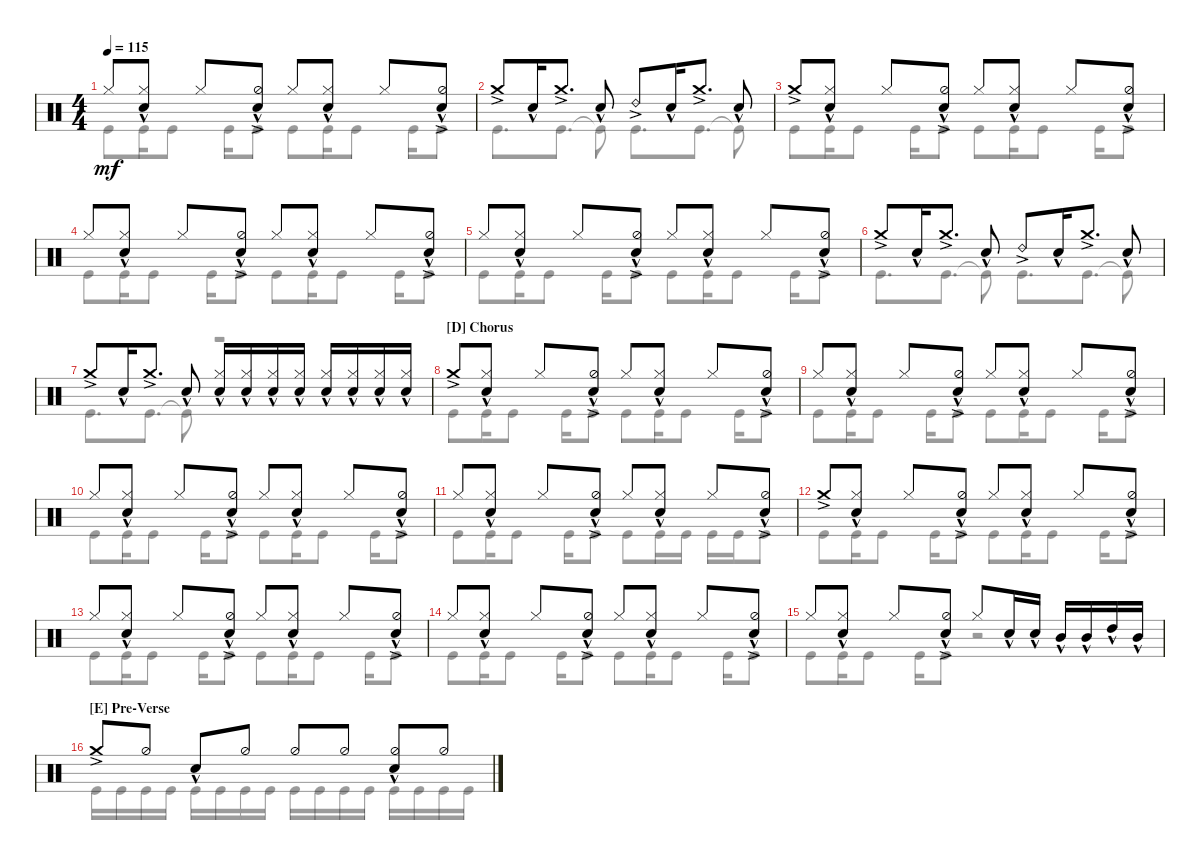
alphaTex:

\defaultSystemsLayout 4
\bracketExtendMode groupsimilarinstruments
\singleTrackTrackNamePolicy hidden
\multiTrackTrackNamePolicy hidden
\firstSystemTrackNameOrientation horizontal
\otherSystemsTrackNameOrientation horizontal
\track ("Maksim Udalov" "Drums") {instrument percussion}
\staff {score}
\articulation defaults
\voice
\ts (4 4)
\tempo 115
\clef neutral
\scale
1.02648
\ks c "Hi-Hat (closed)".8{dy mf}
("Hi-Hat (closed)" "Snare (hit) 2"{hac}).8 "Hi-Hat (closed)".8 ("Snare (hit) 2"{hac} "Hi-Hat (half)"{ac}).8 "Hi-Hat (closed)".8 ("Hi-Hat (closed)" "Snare (hit) 2"{hac}).8 "Hi-Hat (closed)".8 ("Snare (hit) 2"{hac} "Hi-Hat (half)"{ac}).8 |
\scale
0.973518 "Crash medium (hit)"{ac}.8 "Snare (hit) 2"{hac}.16 "Crash medium (hit)"{ac}.8{d} "Snare (hit) 2"{hac}.8 "Ride (bell) 2"{ac}.8 "Snare (hit) 2"{hac}.16 "Crash medium (hit)"{ac}.8{d} "Snare (hit) 2"{hac}.8 |
\scale
1.02648 "Crash medium (hit)"{ac}.8 ("Hi-Hat (closed)" "Snare (hit) 2"{hac}).8 "Hi-Hat (closed)".8 ("Snare (hit) 2"{hac} "Hi-Hat (half)"{ac}).8 "Hi-Hat (closed)".8 ("Hi-Hat (closed)" "Snare (hit) 2"{hac}).8 "Hi-Hat (closed)".8 ("Snare (hit) 2"{hac} "Hi-Hat (half)"{ac}).8 |
\scale
0.973518 "Hi-Hat (closed)".8 ("Hi-Hat (closed)" "Snare (hit) 2"{hac}).8 "Hi-Hat (closed)".8 ("Snare (hit) 2"{hac} "Hi-Hat (half)"{ac}).8 "Hi-Hat (closed)".8 ("Hi-Hat (closed)" "Snare (hit) 2"{hac}).8 "Hi-Hat (closed)".8 ("Snare (hit) 2"{hac} "Hi-Hat (half)"{ac}).8 |
\scale
1.02648 "Hi-Hat (closed)".8 ("Hi-Hat (closed)" "Snare (hit) 2"{hac}).8 "Hi-Hat (closed)".8 ("Snare (hit) 2"{hac} "Hi-Hat (half)"{ac}).8 "Hi-Hat (closed)".8 ("Hi-Hat (closed)" "Snare (hit) 2"{hac}).8 "Hi-Hat (closed)".8 ("Snare (hit) 2"{hac} "Hi-Hat (half)"{ac}).8 |
\scale
0.973518 "Crash medium (hit)"{ac}.8 "Snare (hit) 2"{hac}.16 "Crash medium (hit)"{ac}.8{d} "Snare (hit) 2"{hac}.8 "Ride (bell) 2"{ac}.8 "Snare (hit) 2"{hac}.16 "Crash medium (hit)"{ac}.8{d} "Snare (hit) 2"{hac}.8 |
\scale
1.02648 "Crash medium (hit)"{ac}.8 "Snare (hit) 2"{hac}.16 "Crash medium (hit)"{ac}.8{d} "Snare (hit) 2"{hac}.8 ("Snare (hit) 2"{hac} "Hi-Hat (closed)").16 ("Snare (hit) 2"{hac} "Hi-Hat (closed)").16 ("Snare (hit) 2"{hac} "Hi-Hat (closed)").16 ("Snare (hit) 2"{hac} "Hi-Hat (closed)").16 ("Snare (hit) 2"{hac} "Hi-Hat (closed)").16 ("Snare (hit) 2"{hac} "Hi-Hat (closed)").16 ("Snare (hit) 2"{hac} "Hi-Hat (closed)").16 ("Snare (hit) 2"{hac} "Hi-Hat (closed)").16 |
\section ("D" "Chorus")
\scale
0.973518 "Crash medium (hit)"{ac}.8 ("Hi-Hat (closed)" "Snare (hit) 2"{hac}).8 "Hi-Hat (closed)".8 ("Snare (hit) 2"{hac} "Hi-Hat (half)"{ac}).8 "Hi-Hat (closed)".8 ("Hi-Hat (closed)" "Snare (hit) 2"{hac}).8 "Hi-Hat (closed)".8 ("Snare (hit) 2"{hac} "Hi-Hat (half)"{ac}).8 |
\scale
1.02648 "Hi-Hat (closed)".8 ("Hi-Hat (closed)" "Snare (hit) 2"{hac}).8 "Hi-Hat (closed)".8 ("Snare (hit) 2"{hac} "Hi-Hat (half)"{ac}).8 "Hi-Hat (closed)".8 ("Hi-Hat (closed)" "Snare (hit) 2"{hac}).8 "Hi-Hat (closed)".8 ("Snare (hit) 2"{hac} "Hi-Hat (half)"{ac}).8 |
\scale
0.973518 "Hi-Hat (closed)".8 ("Hi-Hat (closed)" "Snare (hit) 2"{hac}).8 "Hi-Hat (closed)".8 ("Snare (hit) 2"{hac} "Hi-Hat (half)"{ac}).8 "Hi-Hat (closed)".8 ("Hi-Hat (closed)" "Snare (hit) 2"{hac}).8 "Hi-Hat (closed)".8 ("Snare (hit) 2"{hac} "Hi-Hat (half)"{ac}).8 |
\scale
1.02648 "Hi-Hat (closed)".8 ("Hi-Hat (closed)" "Snare (hit) 2"{hac}).8 "Hi-Hat (closed)".8 ("Snare (hit) 2"{hac} "Hi-Hat (half)"{ac}).8 "Hi-Hat (closed)".8 ("Hi-Hat (closed)" "Snare (hit) 2"{hac}).8 "Hi-Hat (closed)".8 ("Snare (hit) 2"{hac} "Hi-Hat (half)"{ac}).8 |
\scale
0.973518 "Crash medium (hit)"{ac}.8 ("Hi-Hat (closed)" "Snare (hit) 2"{hac}).8 "Hi-Hat (closed)".8 ("Snare (hit) 2"{hac} "Hi-Hat (half)"{ac}).8 "Hi-Hat (closed)".8 ("Hi-Hat (closed)" "Snare (hit) 2"{hac}).8 "Hi-Hat (closed)".8 ("Snare (hit) 2"{hac} "Hi-Hat (half)"{ac}).8 |
\scale
1.02648 "Hi-Hat (closed)".8 ("Hi-Hat (closed)" "Snare (hit) 2"{hac}).8 "Hi-Hat (closed)".8 ("Snare (hit) 2"{hac} "Hi-Hat (half)"{ac}).8 "Hi-Hat (closed)".8 ("Hi-Hat (closed)" "Snare (hit) 2"{hac}).8 "Hi-Hat (closed)".8 ("Snare (hit) 2"{hac} "Hi-Hat (half)"{ac}).8 |
\scale
0.973518 "Hi-Hat (closed)".8 ("Hi-Hat (closed)" "Snare (hit) 2"{hac}).8 "Hi-Hat (closed)".8 ("Snare (hit) 2"{hac} "Hi-Hat (half)"{ac}).8 "Hi-Hat (closed)".8 ("Hi-Hat (closed)" "Snare (hit) 2"{hac}).8 "Hi-Hat (closed)".8 ("Snare (hit) 2"{hac} "Hi-Hat (half)"{ac}).8 |
\scale
1.02648 "Hi-Hat (closed)".8 ("Hi-Hat (closed)" "Snare (hit) 2"{hac}).8 "Hi-Hat (closed)".8 ("Snare (hit) 2"{hac} "Hi-Hat (half)"{ac}).8 "Hi-Hat (closed)".8 "Snare (hit) 2"{hac}.16 "Snare (hit) 2"{hac}.16 "Mid Tom (hit)"{hac}.16 "Mid Tom (hit)"{hac}.16 "High Tom (hit)"{hac}.16 "Mid Tom (hit)"{hac}.16 |
\section ("E" "Pre-Verse")
\scale
0.973518 "Crash medium (hit)"{ac}.8 "Hi-Hat (half)".8 "Snare (hit) 2"{hac}.8 "Hi-Hat (half)".8 "Hi-Hat (half)".8 "Hi-Hat (half)".8 ("Hi-Hat (half)" "Snare (hit) 2"{hac}).8 "Hi-Hat (half)".8
\voice
\clef neutral
\ottava regular
\simile none
\scale
1.02648
\ks c "Kick (hit)".8{dy mf} "Kick (hit)".16 "Kick (hit)".8 "Kick (hit)".16 "Kick (hit)".8 "Kick (hit)".8 "Kick (hit)".16 "Kick (hit)".8 "Kick (hit)".16 "Kick (hit)".8
|
\scale
0.973518 "Kick (hit)".8{d} "Kick (hit)".8{d} "Kick (hit)"{t}.8 "Kick (hit)".8{d} "Kick (hit)".8{d} "Kick (hit)"{t}.8 |
\scale
1.02648 "Kick (hit)".8 "Kick (hit)".16 "Kick (hit)".8 "Kick (hit)".16 "Kick (hit)".8 "Kick (hit)".8 "Kick (hit)".16 "Kick (hit)".8 "Kick (hit)".16 "Kick (hit)".8 |
\scale
0.973518 "Kick (hit)".8 "Kick (hit)".16 "Kick (hit)".8 "Kick (hit)".16 "Kick (hit)".8 "Kick (hit)".8 "Kick (hit)".16 "Kick (hit)".8 "Kick (hit)".16 "Kick (hit)".8 |
\scale
1.02648 "Kick (hit)".8 "Kick (hit)".16 "Kick (hit)".8 "Kick (hit)".16 "Kick (hit)".8 "Kick (hit)".8 "Kick (hit)".16 "Kick (hit)".8 "Kick (hit)".16 "Kick (hit)".8 |
\scale
0.973518 "Kick (hit)".8{d} "Kick (hit)".8{d} "Kick (hit)"{t}.8 "Kick (hit)".8{d} "Kick (hit)".8{d} "Kick (hit)"{t}.8 |
\scale
1.02648 "Kick (hit)".8{d} "Kick (hit)".8{d} "Kick (hit)"{t}.8 r.2 |
\scale
0.973518 "Kick (hit)".8 "Kick (hit)".16 "Kick (hit)".8 "Kick (hit)".16 "Kick (hit)".8 "Kick (hit)".8 "Kick (hit)".16 "Kick (hit)".8 "Kick (hit)".16 "Kick (hit)".8 |
\scale
1.02648 "Kick (hit)".8 "Kick (hit)".16 "Kick (hit)".8 "Kick (hit)".16 "Kick (hit)".8 "Kick (hit)".8 "Kick (hit)".16 "Kick (hit)".8 "Kick (hit)".16 "Kick (hit)".8 |
\scale
0.973518 "Kick (hit)".8 "Kick (hit)".16 "Kick (hit)".8 "Kick (hit)".16 "Kick (hit)".8 "Kick (hit)".8 "Kick (hit)".16 "Kick (hit)".8 "Kick (hit)".16 "Kick (hit)".8 |
\scale
1.02648 "Kick (hit)".8 "Kick (hit)".16 "Kick (hit)".8 "Kick (hit)".16 "Kick (hit)".8 "Kick (hit)".8 "Kick (hit)".16 "Kick (hit)".16 "Kick (hit)".16 "Kick (hit)".16 "Kick (hit)".8 |
\scale
0.973518 "Kick (hit)".8 "Kick (hit)".16 "Kick (hit)".8 "Kick (hit)".16 "Kick (hit)".8 "Kick (hit)".8 "Kick (hit)".16 "Kick (hit)".8 "Kick (hit)".16 "Kick (hit)".8 |
\scale
1.02648 "Kick (hit)".8 "Kick (hit)".16 "Kick (hit)".8 "Kick (hit)".16 "Kick (hit)".8 "Kick (hit)".8 "Kick (hit)".16 "Kick (hit)".8 "Kick (hit)".16 "Kick (hit)".8 |
\scale
0.973518 "Kick (hit)".8 "Kick (hit)".16 "Kick (hit)".8 "Kick (hit)".16 "Kick (hit)".8 "Kick (hit)".8 "Kick (hit)".16 "Kick (hit)".8 "Kick (hit)".16 "Kick (hit)".8 |
\scale
1.02648 "Kick (hit)".8 "Kick (hit)".16 "Kick (hit)".8 "Kick (hit)".16 "Kick (hit)".8 r.2 |
\scale
0.973518 "Kick (hit)".16 "Kick (hit)".16 "Kick (hit)".16 "Kick (hit)".16 "Kick (hit)".16 "Kick (hit)".16 "Kick (hit)".16 "Kick (hit)".16 "Kick (hit)".16 "Kick (hit)".16 "Kick (hit)".16 "Kick (hit)".16 "Kick (hit)".16 "Kick (hit)".16 "Kick (hit)".16 "Kick (hit)".16
